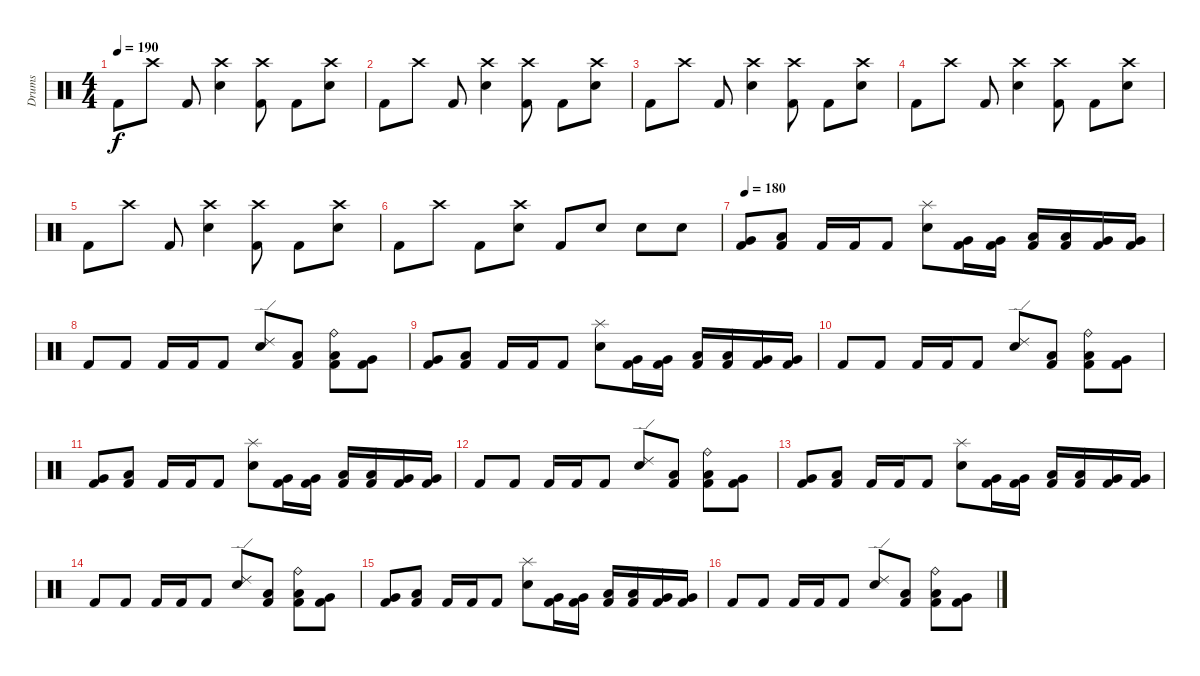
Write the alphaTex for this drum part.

\track ("Drums" "Drums") {instrument percussion}
\staff {score}
\articulation defaults
\ts (4 4)
\tempo 190
\clef neutral
\ks c "Kick (hit) 2".8{dy f} "Crash high (hit)".8 "Kick (hit) 2".8
("Crash high (hit)" "Electric Snare (hit)").4 ("Crash high (hit)" "Kick (hit) 2").8 "Kick (hit) 2".8 ("Crash high (hit)" "Electric Snare (hit)").8 |
"Kick (hit) 2".8 "Crash high (hit)".8 "Kick (hit) 2".8 ("Crash high (hit)" "Electric Snare (hit)").4 ("Crash high (hit)" "Kick (hit) 2").8 "Kick (hit) 2".8 ("Crash high (hit)" "Electric Snare (hit)").8 |
"Kick (hit) 2".8 "Crash high (hit)".8 "Kick (hit) 2".8 ("Crash high (hit)" "Electric Snare (hit)").4 ("Crash high (hit)" "Kick (hit) 2").8 "Kick (hit) 2".8 ("Crash high (hit)" "Electric Snare (hit)").8 |
"Kick (hit) 2".8 "Crash high (hit)".8 "Kick (hit) 2".8 ("Crash high (hit)" "Electric Snare (hit)").4 ("Crash high (hit)" "Kick (hit) 2").8 "Kick (hit) 2".8 ("Crash high (hit)" "Electric Snare (hit)").8 |
"Kick (hit) 2".8 "Crash high (hit)".8 "Kick (hit) 2".8 ("Crash high (hit)" "Electric Snare (hit)").4 ("Crash high (hit)" "Kick (hit) 2").8 "Kick (hit) 2".8 ("Crash high (hit)" "Electric Snare (hit)").8 |
"Kick (hit) 2".8 "Crash high (hit)".8 "Kick (hit) 2".8 ("Crash high (hit)" "Electric Snare (hit)").8 "Kick (hit) 2".8 "Electric Snare (hit)".8 "Electric Snare (hit)".8 "Electric Snare (hit)".8 |
\tempo 180
("Very Low Tom (hit)" "Kick (hit) 2").8 ("Low Tom (hit)" "Kick (hit) 2").8 "Kick (hit) 2".16 "Kick (hit) 2".16 "Kick (hit) 2".8 ("Splash (hit)" "Electric Snare (hit)").8 ("Very Low Tom (hit)" "Kick (hit) 2").16 ("Very Low Tom (hit)" "Kick (hit) 2").16 ("Low Floor Tom (hit)" "Kick (hit) 2").16 ("Low Floor Tom (hit)" "Kick (hit) 2").16 ("Very Low Tom (hit)" "Kick (hit) 2").16 ("Very Low Tom (hit)" "Kick (hit) 2").16 |
"Kick (hit) 2".8 "Kick (hit) 2".8 "Kick (hit) 2".16 "Kick (hit) 2".16 "Kick (hit) 2".8 ("Ride (edge) 2" "Electric Snare (hit)").8 ("Low Tom (hit)" "Kick (hit) 2").8 ("Ride (bell)" "Low Floor Tom (hit)" "Kick (hit) 2").8 ("Very Low Tom (hit)" "Kick (hit) 2").8 |
("Very Low Tom (hit)" "Kick (hit) 2").8 ("Low Tom (hit)" "Kick (hit) 2").8 "Kick (hit) 2".16 "Kick (hit) 2".16 "Kick (hit) 2".8 ("Splash (hit)" "Electric Snare (hit)").8 ("Very Low Tom (hit)" "Kick (hit) 2").16 ("Very Low Tom (hit)" "Kick (hit) 2").16 ("Low Floor Tom (hit)" "Kick (hit) 2").16 ("Low Floor Tom (hit)" "Kick (hit) 2").16 ("Very Low Tom (hit)" "Kick (hit) 2").16 ("Very Low Tom (hit)" "Kick (hit) 2").16 |
"Kick (hit) 2".8 "Kick (hit) 2".8 "Kick (hit) 2".16 "Kick (hit) 2".16 "Kick (hit) 2".8 ("Ride (edge) 2" "Electric Snare (hit)").8 ("Low Tom (hit)" "Kick (hit) 2").8 ("Ride (bell)" "Low Floor Tom (hit)" "Kick (hit) 2").8 ("Very Low Tom (hit)" "Kick (hit) 2").8 |
("Very Low Tom (hit)" "Kick (hit) 2").8 ("Low Tom (hit)" "Kick (hit) 2").8 "Kick (hit) 2".16 "Kick (hit) 2".16 "Kick (hit) 2".8 ("Splash (hit)" "Electric Snare (hit)").8 ("Very Low Tom (hit)" "Kick (hit) 2").16 ("Very Low Tom (hit)" "Kick (hit) 2").16 ("Low Floor Tom (hit)" "Kick (hit) 2").16 ("Low Floor Tom (hit)" "Kick (hit) 2").16 ("Very Low Tom (hit)" "Kick (hit) 2").16 ("Very Low Tom (hit)" "Kick (hit) 2").16 |
"Kick (hit) 2".8 "Kick (hit) 2".8 "Kick (hit) 2".16 "Kick (hit) 2".16 "Kick (hit) 2".8 ("Ride (edge) 2" "Electric Snare (hit)").8 ("Low Tom (hit)" "Kick (hit) 2").8 ("Ride (bell)" "Low Floor Tom (hit)" "Kick (hit) 2").8 ("Very Low Tom (hit)" "Kick (hit) 2").8 |
("Very Low Tom (hit)" "Kick (hit) 2").8 ("Low Tom (hit)" "Kick (hit) 2").8 "Kick (hit) 2".16 "Kick (hit) 2".16 "Kick (hit) 2".8 ("Splash (hit)" "Electric Snare (hit)").8 ("Very Low Tom (hit)" "Kick (hit) 2").16 ("Very Low Tom (hit)" "Kick (hit) 2").16 ("Low Floor Tom (hit)" "Kick (hit) 2").16 ("Low Floor Tom (hit)" "Kick (hit) 2").16 ("Very Low Tom (hit)" "Kick (hit) 2").16 ("Very Low Tom (hit)" "Kick (hit) 2").16 |
"Kick (hit) 2".8 "Kick (hit) 2".8 "Kick (hit) 2".16 "Kick (hit) 2".16 "Kick (hit) 2".8 ("Ride (edge) 2" "Electric Snare (hit)").8 ("Low Tom (hit)" "Kick (hit) 2").8 ("Ride (bell)" "Low Floor Tom (hit)" "Kick (hit) 2").8 ("Very Low Tom (hit)" "Kick (hit) 2").8 |
("Very Low Tom (hit)" "Kick (hit) 2").8 ("Low Tom (hit)" "Kick (hit) 2").8 "Kick (hit) 2".16 "Kick (hit) 2".16 "Kick (hit) 2".8 ("Splash (hit)" "Electric Snare (hit)").8 ("Very Low Tom (hit)" "Kick (hit) 2").16 ("Very Low Tom (hit)" "Kick (hit) 2").16 ("Low Floor Tom (hit)" "Kick (hit) 2").16 ("Low Floor Tom (hit)" "Kick (hit) 2").16 ("Very Low Tom (hit)" "Kick (hit) 2").16 ("Very Low Tom (hit)" "Kick (hit) 2").16 |
"Kick (hit) 2".8 "Kick (hit) 2".8 "Kick (hit) 2".16 "Kick (hit) 2".16 "Kick (hit) 2".8 ("Ride (edge) 2" "Electric Snare (hit)").8 ("Low Tom (hit)" "Kick (hit) 2").8 ("Ride (bell)" "Low Floor Tom (hit)" "Kick (hit) 2").8 ("Very Low Tom (hit)" "Kick (hit) 2").8
